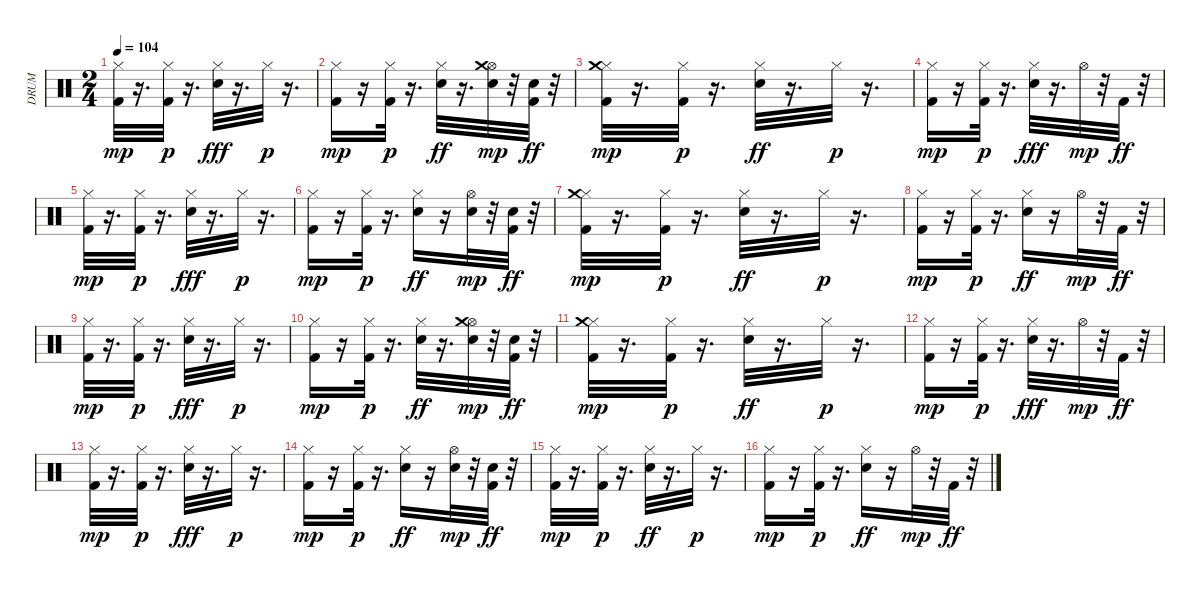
\track ("DRUM    " "DRUM    ") {instrument percussion}
\staff {score}
\articulation defaults
\ts (2 4)
\tempo 104
\clef neutral
\ks c
("Kick (hit) 2" "Hi-Hat (closed)").32{dy mp} r.16{d} ("Kick (hit) 2" "Hi-Hat (closed)").32{dy p} r.16{d} ("Hi-Hat (closed)" "Snare (hit) 2").32{dy fff} r.16{d} "Hi-Hat (closed)".32{dy p} r.16{d} |
("Kick (hit) 2" "Hi-Hat (closed)").16{dy mp} r.16 ("Kick (hit) 2" "Hi-Hat (closed)").32{dy p} r.16{d} ("Hi-Hat (closed)" "Snare (hit) 2").32{dy ff} r.16{d} ("Hi-Hat (open)" "Snare (hit) 2" "Crash medium (hit)").32{dy mp} r.32 ("Kick (hit) 2" "Snare (hit) 2").32{dy ff} r.32 |
("Kick (hit) 2" "Hi-Hat (closed)" "Crash medium (hit)").32{dy mp} r.16{d} ("Kick (hit) 2" "Hi-Hat (closed)").32{dy p} r.16{d} ("Hi-Hat (closed)" "Snare (hit) 2").32{dy ff} r.16{d} "Hi-Hat (closed)".32{dy p} r.16{d} |
("Kick (hit) 2" "Hi-Hat (closed)").16{dy mp} r.16 ("Kick (hit) 2" "Hi-Hat (closed)").32{dy p} r.16{d} ("Hi-Hat (closed)" "Snare (hit) 2").32{dy fff} r.16{d} "Hi-Hat (open)".32{dy mp} r.32 "Kick (hit) 2".32{dy ff} r.32 |
("Kick (hit) 2" "Hi-Hat (closed)").32{dy mp} r.16{d} ("Kick (hit) 2" "Hi-Hat (closed)").32{dy p} r.16{d} ("Hi-Hat (closed)" "Snare (hit) 2").32{dy fff} r.16{d} "Hi-Hat (closed)".32{dy p} r.16{d} |
("Kick (hit) 2" "Hi-Hat (closed)").16{dy mp} r.16 ("Kick (hit) 2" "Hi-Hat (closed)").32{dy p} r.16{d} ("Hi-Hat (closed)" "Snare (hit) 2").16{dy ff} r.16 ("Hi-Hat (open)" "Snare (hit) 2").32{dy mp} r.32 ("Kick (hit) 2" "Snare (hit) 2").32{dy ff} r.32 |
("Kick (hit) 2" "Hi-Hat (closed)" "Crash medium (hit)").32{dy mp} r.16{d} ("Kick (hit) 2" "Hi-Hat (closed)").32{dy p} r.16{d} ("Hi-Hat (closed)" "Snare (hit) 2").32{dy ff} r.16{d} "Hi-Hat (closed)".32{dy p} r.16{d} |
("Kick (hit) 2" "Hi-Hat (closed)").16{dy mp} r.16 ("Kick (hit) 2" "Hi-Hat (closed)").32{dy p} r.16{d} ("Hi-Hat (closed)" "Snare (hit) 2").16{dy ff} r.16 "Hi-Hat (open)".32{dy mp} r.32 "Kick (hit) 2".32{dy ff} r.32 |
("Kick (hit) 2" "Hi-Hat (closed)").32{dy mp} r.16{d} ("Kick (hit) 2" "Hi-Hat (closed)").32{dy p} r.16{d} ("Hi-Hat (closed)" "Snare (hit) 2").32{dy fff} r.16{d} "Hi-Hat (closed)".32{dy p} r.16{d} |
("Kick (hit) 2" "Hi-Hat (closed)").16{dy mp} r.16 ("Kick (hit) 2" "Hi-Hat (closed)").32{dy p} r.16{d} ("Hi-Hat (closed)" "Snare (hit) 2").32{dy ff} r.16{d} ("Hi-Hat (open)" "Snare (hit) 2" "Crash medium (hit)").32{dy mp} r.32 ("Kick (hit) 2" "Snare (hit) 2").32{dy ff} r.32 |
("Kick (hit) 2" "Hi-Hat (closed)" "Crash medium (hit)").32{dy mp} r.16{d} ("Kick (hit) 2" "Hi-Hat (closed)").32{dy p} r.16{d} ("Hi-Hat (closed)" "Snare (hit) 2").32{dy ff} r.16{d} "Hi-Hat (closed)".32{dy p} r.16{d} |
("Kick (hit) 2" "Hi-Hat (closed)").16{dy mp} r.16 ("Kick (hit) 2" "Hi-Hat (closed)").32{dy p} r.16{d} ("Hi-Hat (closed)" "Snare (hit) 2").32{dy fff} r.16{d} "Hi-Hat (open)".32{dy mp} r.32 "Kick (hit) 2".32{dy ff} r.32 |
("Kick (hit) 2" "Hi-Hat (closed)").32{dy mp} r.16{d} ("Kick (hit) 2" "Hi-Hat (closed)").32{dy p} r.16{d} ("Hi-Hat (closed)" "Snare (hit) 2").32{dy fff} r.16{d} "Hi-Hat (closed)".32{dy p} r.16{d} |
("Kick (hit) 2" "Hi-Hat (closed)").16{dy mp} r.16 ("Kick (hit) 2" "Hi-Hat (closed)").32{dy p} r.16{d} ("Hi-Hat (closed)" "Snare (hit) 2").16{dy ff} r.16 ("Hi-Hat (open)" "Snare (hit) 2").32{dy mp} r.32 ("Kick (hit) 2" "Snare (hit) 2").32{dy ff} r.32 |
("Kick (hit) 2" "Hi-Hat (closed)").32{dy mp} r.16{d} ("Kick (hit) 2" "Hi-Hat (closed)").32{dy p} r.16{d} ("Hi-Hat (closed)" "Snare (hit) 2").32{dy ff} r.16{d} "Hi-Hat (closed)".32{dy p} r.16{d} |
("Kick (hit) 2" "Hi-Hat (closed)").16{dy mp} r.16 ("Kick (hit) 2" "Hi-Hat (closed)").32{dy p} r.16{d} ("Hi-Hat (closed)" "Snare (hit) 2").16{dy ff} r.16 "Hi-Hat (open)".32{dy mp} r.32 "Kick (hit) 2".32{dy ff} r.32
